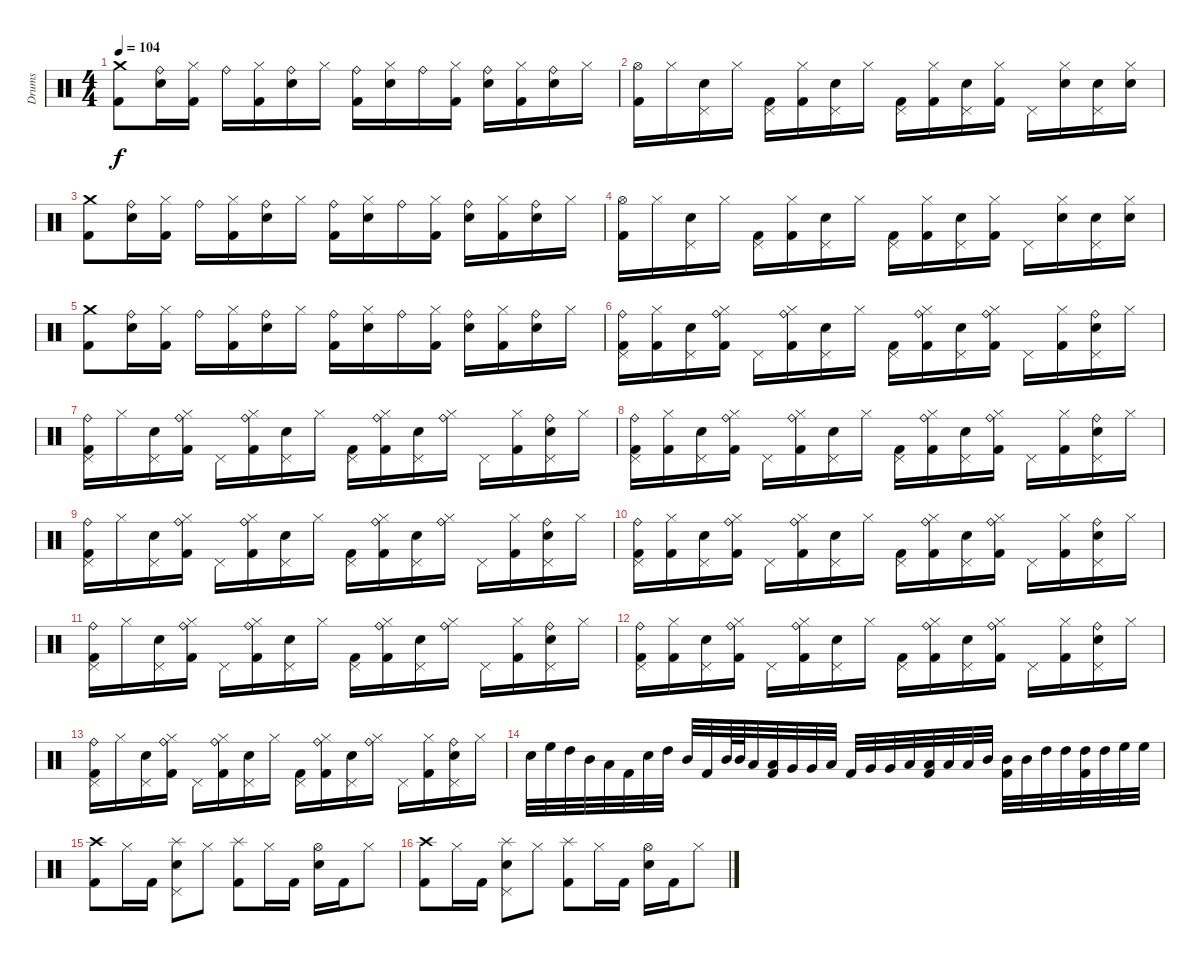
\track ("Drums" "Drums") {instrument percussion}
\staff {score}
\articulation defaults
\ts (4 4)
\tempo 104
\clef neutral
\ks c
("Kick (hit) 2" "Crash medium (hit)").8{dy f} ("Snare (hit) 2" "Ride (bell)").16 ("Kick (hit) 2" "Hi-Hat (closed)").16 "Ride (bell)".16 ("Kick (hit) 2" "Hi-Hat (closed)").16 ("Snare (hit) 2" "Ride (bell)").16 "Hi-Hat (closed)".16 ("Kick (hit) 2" "Ride (bell)").16 ("Snare (hit) 2" "Hi-Hat (closed)").16 "Ride (bell)".16 ("Kick (hit) 2" "Hi-Hat (closed)").16 ("Snare (hit) 2" "Ride (bell)").16 ("Kick (hit) 2" "Hi-Hat (closed)").16 ("Snare (hit) 2" "Ride (bell)").16 "Hi-Hat (closed)".16 |
("Kick (hit) 2" "Hi-Hat (open)").16 "Hi-Hat (closed)".16 ("Snare (hit) 2" "Pedal Hi-Hat (hit)").16 "Hi-Hat (closed)".16 ("Kick (hit) 2" "Pedal Hi-Hat (hit)").16 ("Kick (hit) 2" "Hi-Hat (closed)").16 ("Snare (hit) 2" "Pedal Hi-Hat (hit)").16 "Hi-Hat (closed)".16 ("Kick (hit) 2" "Pedal Hi-Hat (hit)").16 ("Kick (hit) 2" "Hi-Hat (closed)").16 ("Snare (hit) 2" "Pedal Hi-Hat (hit)").16 ("Kick (hit) 2" "Hi-Hat (closed)").16 "Pedal Hi-Hat (hit)".16 ("Snare (hit) 2" "Hi-Hat (closed)").16 ("Snare (hit) 2" "Pedal Hi-Hat (hit)").16 ("Snare (hit) 2" "Hi-Hat (closed)").16 |
("Kick (hit) 2" "Crash medium (hit)").8 ("Snare (hit) 2" "Ride (bell)").16 ("Kick (hit) 2" "Hi-Hat (closed)").16 "Ride (bell)".16 ("Kick (hit) 2" "Hi-Hat (closed)").16 ("Snare (hit) 2" "Ride (bell)").16 "Hi-Hat (closed)".16 ("Kick (hit) 2" "Ride (bell)").16 ("Snare (hit) 2" "Hi-Hat (closed)").16 "Ride (bell)".16 ("Kick (hit) 2" "Hi-Hat (closed)").16 ("Snare (hit) 2" "Ride (bell)").16 ("Kick (hit) 2" "Hi-Hat (closed)").16 ("Snare (hit) 2" "Ride (bell)").16 "Hi-Hat (closed)".16 |
("Kick (hit) 2" "Hi-Hat (open)").16 "Hi-Hat (closed)".16 ("Snare (hit) 2" "Pedal Hi-Hat (hit)").16 "Hi-Hat (closed)".16 ("Kick (hit) 2" "Pedal Hi-Hat (hit)").16 ("Kick (hit) 2" "Hi-Hat (closed)").16 ("Snare (hit) 2" "Pedal Hi-Hat (hit)").16 "Hi-Hat (closed)".16 ("Kick (hit) 2" "Pedal Hi-Hat (hit)").16 ("Kick (hit) 2" "Hi-Hat (closed)").16 ("Snare (hit) 2" "Pedal Hi-Hat (hit)").16 ("Kick (hit) 2" "Hi-Hat (closed)").16 "Pedal Hi-Hat (hit)".16 ("Snare (hit) 2" "Hi-Hat (closed)").16 ("Snare (hit) 2" "Pedal Hi-Hat (hit)").16 ("Snare (hit) 2" "Hi-Hat (closed)").16 |
("Kick (hit) 2" "Crash medium (hit)").8 ("Snare (hit) 2" "Ride (bell)").16 ("Kick (hit) 2" "Hi-Hat (closed)").16 "Ride (bell)".16 ("Kick (hit) 2" "Hi-Hat (closed)").16 ("Snare (hit) 2" "Ride (bell)").16 "Hi-Hat (closed)".16 ("Kick (hit) 2" "Ride (bell)").16 ("Snare (hit) 2" "Hi-Hat (closed)").16 "Ride (bell)".16 ("Kick (hit) 2" "Hi-Hat (closed)").16 ("Snare (hit) 2" "Ride (bell)").16 ("Kick (hit) 2" "Hi-Hat (closed)").16 ("Snare (hit) 2" "Ride (bell)").16 "Hi-Hat (closed)".16 |
("Kick (hit) 2" "Pedal Hi-Hat (hit)" "Ride (bell)").16 ("Kick (hit) 2" "Hi-Hat (closed)").16 ("Snare (hit) 2" "Pedal Hi-Hat (hit)").16 ("Kick (hit) 2" "Hi-Hat (closed)" "Ride (bell)").16 "Pedal Hi-Hat (hit)".16 ("Kick (hit) 2" "Hi-Hat (closed)" "Ride (bell)").16 ("Snare (hit) 2" "Pedal Hi-Hat (hit)").16 "Hi-Hat (closed)".16 ("Kick (hit) 2" "Pedal Hi-Hat (hit)").16 ("Kick (hit) 2" "Hi-Hat (closed)" "Ride (bell)").16 ("Snare (hit) 2" "Pedal Hi-Hat (hit)").16 ("Kick (hit) 2" "Hi-Hat (closed)" "Ride (bell)").16 "Pedal Hi-Hat (hit)".16 ("Kick (hit) 2" "Hi-Hat (closed)").16 ("Snare (hit) 2" "Pedal Hi-Hat (hit)" "Ride (bell)").16 "Hi-Hat (closed)".16 |
("Kick (hit) 2" "Pedal Hi-Hat (hit)" "Ride (bell)").16 "Hi-Hat (closed)".16 ("Snare (hit) 2" "Pedal Hi-Hat (hit)").16 ("Kick (hit) 2" "Hi-Hat (closed)" "Ride (bell)").16 "Pedal Hi-Hat (hit)".16 ("Kick (hit) 2" "Hi-Hat (closed)" "Ride (bell)").16 ("Snare (hit) 2" "Pedal Hi-Hat (hit)").16 "Hi-Hat (closed)".16 ("Kick (hit) 2" "Pedal Hi-Hat (hit)").16 ("Kick (hit) 2" "Hi-Hat (closed)" "Ride (bell)").16 ("Snare (hit) 2" "Pedal Hi-Hat (hit)").16 ("Hi-Hat (closed)" "Ride (bell)").16 "Pedal Hi-Hat (hit)".16 ("Kick (hit) 2" "Hi-Hat (closed)").16 ("Snare (hit) 2" "Pedal Hi-Hat (hit)" "Ride (bell)").16 "Hi-Hat (closed)".16 |
("Kick (hit) 2" "Pedal Hi-Hat (hit)" "Ride (bell)").16 ("Kick (hit) 2" "Hi-Hat (closed)").16 ("Snare (hit) 2" "Pedal Hi-Hat (hit)").16 ("Kick (hit) 2" "Hi-Hat (closed)" "Ride (bell)").16 "Pedal Hi-Hat (hit)".16 ("Kick (hit) 2" "Hi-Hat (closed)" "Ride (bell)").16 ("Snare (hit) 2" "Pedal Hi-Hat (hit)").16 "Hi-Hat (closed)".16 ("Kick (hit) 2" "Pedal Hi-Hat (hit)").16 ("Kick (hit) 2" "Hi-Hat (closed)" "Ride (bell)").16 ("Snare (hit) 2" "Pedal Hi-Hat (hit)").16 ("Kick (hit) 2" "Hi-Hat (closed)" "Ride (bell)").16 "Pedal Hi-Hat (hit)".16 ("Kick (hit) 2" "Hi-Hat (closed)").16 ("Snare (hit) 2" "Pedal Hi-Hat (hit)" "Ride (bell)").16 "Hi-Hat (closed)".16 |
("Kick (hit) 2" "Pedal Hi-Hat (hit)" "Ride (bell)").16 "Hi-Hat (closed)".16 ("Snare (hit) 2" "Pedal Hi-Hat (hit)").16 ("Kick (hit) 2" "Hi-Hat (closed)" "Ride (bell)").16 "Pedal Hi-Hat (hit)".16 ("Kick (hit) 2" "Hi-Hat (closed)" "Ride (bell)").16 ("Snare (hit) 2" "Pedal Hi-Hat (hit)").16 "Hi-Hat (closed)".16 ("Kick (hit) 2" "Pedal Hi-Hat (hit)").16 ("Kick (hit) 2" "Hi-Hat (closed)" "Ride (bell)").16 ("Snare (hit) 2" "Pedal Hi-Hat (hit)").16 ("Hi-Hat (closed)" "Ride (bell)").16 "Pedal Hi-Hat (hit)".16 ("Kick (hit) 2" "Hi-Hat (closed)").16 ("Snare (hit) 2" "Pedal Hi-Hat (hit)" "Ride (bell)").16 "Hi-Hat (closed)".16 |
("Kick (hit) 2" "Pedal Hi-Hat (hit)" "Ride (bell)").16 ("Kick (hit) 2" "Hi-Hat (closed)").16 ("Snare (hit) 2" "Pedal Hi-Hat (hit)").16 ("Kick (hit) 2" "Hi-Hat (closed)" "Ride (bell)").16 "Pedal Hi-Hat (hit)".16 ("Kick (hit) 2" "Hi-Hat (closed)" "Ride (bell)").16 ("Snare (hit) 2" "Pedal Hi-Hat (hit)").16 "Hi-Hat (closed)".16 ("Kick (hit) 2" "Pedal Hi-Hat (hit)").16 ("Kick (hit) 2" "Hi-Hat (closed)" "Ride (bell)").16 ("Snare (hit) 2" "Pedal Hi-Hat (hit)").16 ("Kick (hit) 2" "Hi-Hat (closed)" "Ride (bell)").16 "Pedal Hi-Hat (hit)".16 ("Kick (hit) 2" "Hi-Hat (closed)").16 ("Snare (hit) 2" "Pedal Hi-Hat (hit)" "Ride (bell)").16 "Hi-Hat (closed)".16 |
("Kick (hit) 2" "Pedal Hi-Hat (hit)" "Ride (bell)").16 "Hi-Hat (closed)".16 ("Snare (hit) 2" "Pedal Hi-Hat (hit)").16 ("Kick (hit) 2" "Hi-Hat (closed)" "Ride (bell)").16 "Pedal Hi-Hat (hit)".16 ("Kick (hit) 2" "Hi-Hat (closed)" "Ride (bell)").16 ("Snare (hit) 2" "Pedal Hi-Hat (hit)").16 "Hi-Hat (closed)".16 ("Kick (hit) 2" "Pedal Hi-Hat (hit)").16 ("Kick (hit) 2" "Hi-Hat (closed)" "Ride (bell)").16 ("Snare (hit) 2" "Pedal Hi-Hat (hit)").16 ("Hi-Hat (closed)" "Ride (bell)").16 "Pedal Hi-Hat (hit)".16 ("Kick (hit) 2" "Hi-Hat (closed)").16 ("Snare (hit) 2" "Pedal Hi-Hat (hit)" "Ride (bell)").16 "Hi-Hat (closed)".16 |
("Kick (hit) 2" "Pedal Hi-Hat (hit)" "Ride (bell)").16 ("Kick (hit) 2" "Hi-Hat (closed)").16 ("Snare (hit) 2" "Pedal Hi-Hat (hit)").16 ("Kick (hit) 2" "Hi-Hat (closed)" "Ride (bell)").16 "Pedal Hi-Hat (hit)".16 ("Kick (hit) 2" "Hi-Hat (closed)" "Ride (bell)").16 ("Snare (hit) 2" "Pedal Hi-Hat (hit)").16 "Hi-Hat (closed)".16 ("Kick (hit) 2" "Pedal Hi-Hat (hit)").16 ("Kick (hit) 2" "Hi-Hat (closed)" "Ride (bell)").16 ("Snare (hit) 2" "Pedal Hi-Hat (hit)").16 ("Kick (hit) 2" "Hi-Hat (closed)" "Ride (bell)").16 "Pedal Hi-Hat (hit)".16 ("Kick (hit) 2" "Hi-Hat (closed)").16 ("Snare (hit) 2" "Pedal Hi-Hat (hit)" "Ride (bell)").16 "Hi-Hat (closed)".16 |
("Kick (hit) 2" "Pedal Hi-Hat (hit)" "Ride (bell)").16 "Hi-Hat (closed)".16 ("Snare (hit) 2" "Pedal Hi-Hat (hit)").16 ("Kick (hit) 2" "Hi-Hat (closed)" "Ride (bell)").16 "Pedal Hi-Hat (hit)".16 ("Kick (hit) 2" "Hi-Hat (closed)" "Ride (bell)").16 ("Snare (hit) 2" "Pedal Hi-Hat (hit)").16 "Hi-Hat (closed)".16 ("Kick (hit) 2" "Pedal Hi-Hat (hit)").16 ("Kick (hit) 2" "Hi-Hat (closed)" "Ride (bell)").16 ("Snare (hit) 2" "Pedal Hi-Hat (hit)").16 ("Hi-Hat (closed)" "Ride (bell)").16 "Pedal Hi-Hat (hit)".16 ("Kick (hit) 2" "Hi-Hat (closed)").16 ("Snare (hit) 2" "Pedal Hi-Hat (hit)" "Ride (bell)").16 "Hi-Hat (closed)".16 |
"Snare (hit) 2".32 "High Floor Tom (hit)".32 "High Tom (hit)".32 "Mid Tom (hit)".32 "Low Tom (hit)".32 "Kick (hit) 2".32 "Snare (hit) 2".32 "High Tom (hit)".32 "Mid Tom (hit)".32 "Kick (hit) 2".32 "Mid Tom (hit)".64 "Mid Tom (hit)".64 "Low Tom (hit)".32 ("Kick (hit) 2" "Low Tom (hit)").32 "Very Low Tom (hit)".32 "Very Low Tom (hit)".32 "Low Floor Tom (hit)".32 "Kick (hit) 2".32 "Very Low Tom (hit)".32 "Very Low Tom (hit)".32 "Low Tom (hit)".32 ("Kick (hit) 2" "Low Tom (hit)").32 "Low Tom (hit)".32 "Low Tom (hit)".32 "Mid Tom (hit)".32 ("Kick (hit) 2" "Mid Tom (hit)").32 "Mid Tom (hit)".32 "High Tom (hit)".32 "High Tom (hit)".32 ("Kick (hit) 2" "High Tom (hit)").32 "High Tom (hit)".32 "High Floor Tom (hit)".32 "High Floor Tom (hit)".32 |
("Kick (hit) 2" "Crash high (hit)").8 "Hi-Hat (closed)".16 "Kick (hit) 2".16 ("Snare (hit) 2" "Pedal Hi-Hat (hit)" "Splash (hit)").8 "Hi-Hat (closed)".8 ("Kick (hit) 2" "Splash (hit)").8 "Hi-Hat (closed)".16 "Kick (hit) 2".16 ("Snare (hit) 2" "Hi-Hat (open)").16 "Kick (hit) 2".16 "Hi-Hat (closed)".8 |
("Kick (hit) 2" "Crash high (hit)").8 "Hi-Hat (closed)".16 "Kick (hit) 2".16 ("Snare (hit) 2" "Pedal Hi-Hat (hit)" "Splash (hit)").8 "Hi-Hat (closed)".8 ("Kick (hit) 2" "Splash (hit)").8 "Hi-Hat (closed)".16 "Kick (hit) 2".16 ("Snare (hit) 2" "Hi-Hat (open)").16 "Kick (hit) 2".16 "Hi-Hat (closed)".8
